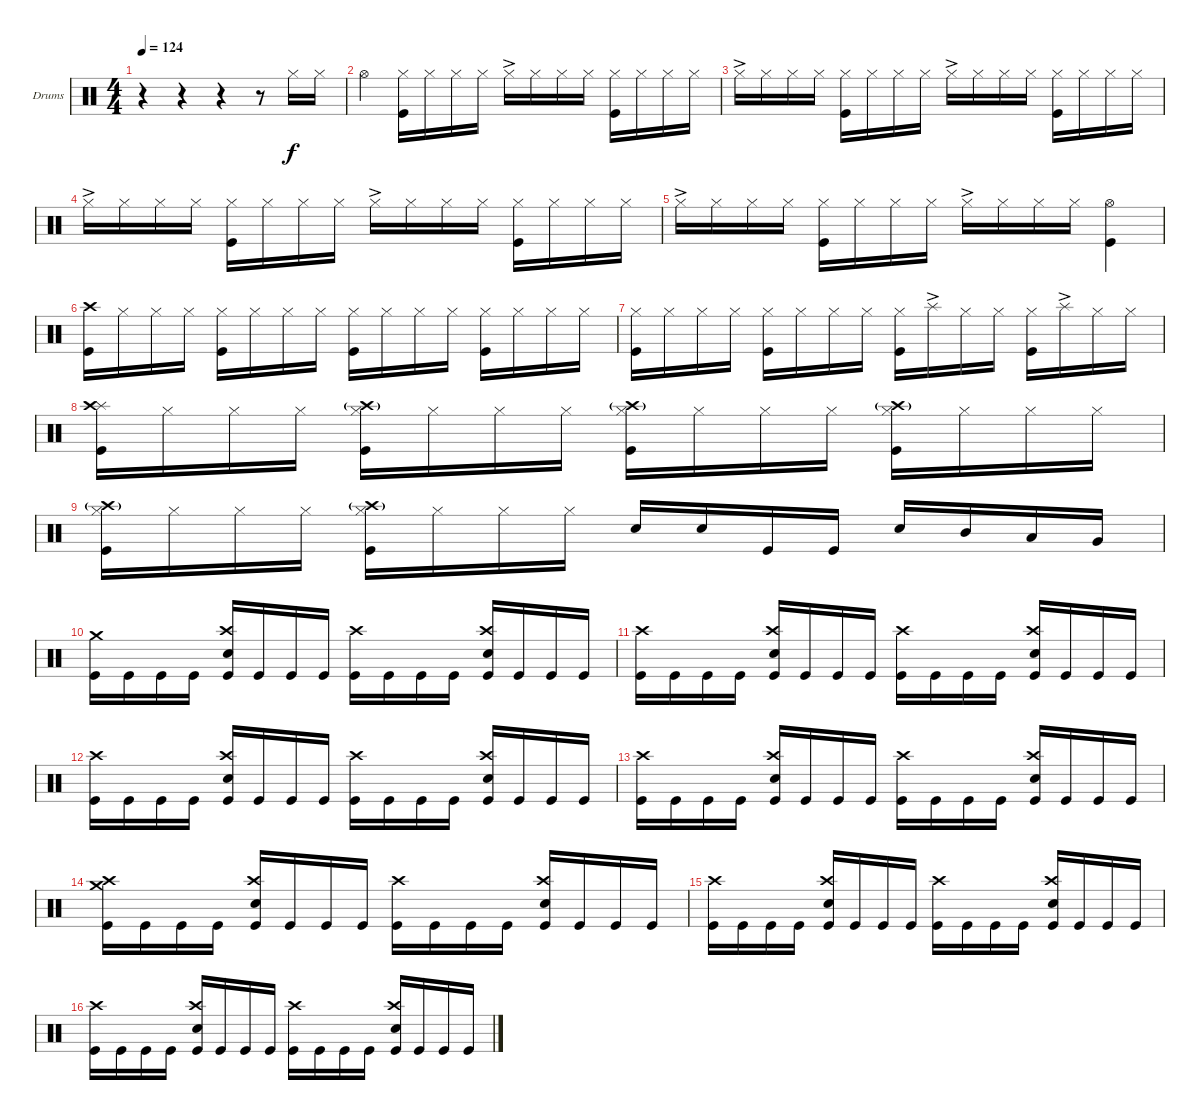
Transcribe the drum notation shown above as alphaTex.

\defaultSystemsLayout 4
\bracketExtendMode groupsimilarinstruments
\firstSystemTrackNameOrientation horizontal
\otherSystemsTrackNameOrientation horizontal
\track ("Drumkit" "Drums") {instrument percussion}
\staff {score}
\articulation defaults
\ts (4 4)
\tempo 124
\clef neutral
\ks c
r.4{dy f} r.4 r.4 r.8 "Hi-Hat (closed)".16 "Hi-Hat (closed)".16 |
"Hi-Hat (open)".4 ("Hi-Hat (closed)" "Kick (hit)").16 "Hi-Hat (closed)".16 "Hi-Hat (closed)".16 "Hi-Hat (closed)".16 "Hi-Hat (closed)"{ac}.16 "Hi-Hat (closed)".16 "Hi-Hat (closed)".16 "Hi-Hat (closed)".16 ("Hi-Hat (closed)" "Kick (hit)").16 "Hi-Hat (closed)".16 "Hi-Hat (closed)".16 "Hi-Hat (closed)".16 |
"Hi-Hat (closed)"{ac}.16 "Hi-Hat (closed)".16 "Hi-Hat (closed)".16 "Hi-Hat (closed)".16 ("Hi-Hat (closed)" "Kick (hit)").16 "Hi-Hat (closed)".16 "Hi-Hat (closed)".16 "Hi-Hat (closed)".16 "Hi-Hat (closed)"{ac}.16 "Hi-Hat (closed)".16 "Hi-Hat (closed)".16 "Hi-Hat (closed)".16 ("Hi-Hat (closed)" "Kick (hit)").16 "Hi-Hat (closed)".16 "Hi-Hat (closed)".16 "Hi-Hat (closed)".16 |
"Hi-Hat (closed)"{ac}.16 "Hi-Hat (closed)".16 "Hi-Hat (closed)".16 "Hi-Hat (closed)".16 ("Hi-Hat (closed)" "Kick (hit)").16 "Hi-Hat (closed)".16 "Hi-Hat (closed)".16 "Hi-Hat (closed)".16 "Hi-Hat (closed)"{ac}.16 "Hi-Hat (closed)".16 "Hi-Hat (closed)".16 "Hi-Hat (closed)".16 ("Hi-Hat (closed)" "Kick (hit)").16 "Hi-Hat (closed)".16 "Hi-Hat (closed)".16 "Hi-Hat (closed)".16 |
"Hi-Hat (closed)"{ac}.16 "Hi-Hat (closed)".16 "Hi-Hat (closed)".16 "Hi-Hat (closed)".16 ("Hi-Hat (closed)" "Kick (hit)").16 "Hi-Hat (closed)".16 "Hi-Hat (closed)".16 "Hi-Hat (closed)".16 "Hi-Hat (closed)"{ac}.16 "Hi-Hat (closed)".16 "Hi-Hat (closed)".16 "Hi-Hat (closed)".16 ("Hi-Hat (open)" "Kick (hit)").4 |
("Crash high (hit)" "Kick (hit)").16 "Hi-Hat (closed)".16 "Hi-Hat (closed)".16 "Hi-Hat (closed)".16 ("Hi-Hat (closed)" "Kick (hit)").16 "Hi-Hat (closed)".16 "Hi-Hat (closed)".16 "Hi-Hat (closed)".16 ("Hi-Hat (closed)" "Kick (hit)").16 "Hi-Hat (closed)".16 "Hi-Hat (closed)".16 "Hi-Hat (closed)".16 ("Hi-Hat (closed)" "Kick (hit)").16 "Hi-Hat (closed)".16 "Hi-Hat (closed)".16 "Hi-Hat (closed)".16 |
("Hi-Hat (closed)" "Kick (hit)").16 "Hi-Hat (closed)".16 "Hi-Hat (closed)".16 "Hi-Hat (closed)".16 ("Hi-Hat (closed)" "Kick (hit)").16 "Hi-Hat (closed)".16 "Hi-Hat (closed)".16 "Hi-Hat (closed)".16 ("Hi-Hat (closed)" "Kick (hit)").16 "Splash (hit)"{ac}.16 "Hi-Hat (closed)".16 "Hi-Hat (closed)".16 ("Hi-Hat (closed)" "Kick (hit)").16 "Splash (hit)"{ac}.16 "Hi-Hat (closed)".16 "Hi-Hat (closed)".16 |
("Splash (hit)" "Crash high (hit)" "Kick (hit)").16 "Hi-Hat (closed)".16 "Hi-Hat (closed)".16 "Hi-Hat (closed)".16 ("Hi-Hat (closed)" "Crash high (hit)"{g} "Kick (hit)").16 "Hi-Hat (closed)".16 "Hi-Hat (closed)".16 "Hi-Hat (closed)".16 ("Hi-Hat (closed)" "Crash high (hit)"{g} "Kick (hit)").16 "Hi-Hat (closed)".16 "Hi-Hat (closed)".16 "Hi-Hat (closed)".16 ("Hi-Hat (closed)" "Crash high (hit)"{g} "Kick (hit)").16 "Hi-Hat (closed)".16 "Hi-Hat (closed)".16 "Hi-Hat (closed)".16 |
("Hi-Hat (closed)" "Crash high (hit)"{g} "Kick (hit)").16 "Hi-Hat (closed)".16 "Hi-Hat (closed)".16 "Hi-Hat (closed)".16 ("Hi-Hat (closed)" "Crash high (hit)"{g} "Kick (hit)").16 "Hi-Hat (closed)".16 "Hi-Hat (closed)".16 "Hi-Hat (closed)".16 "Snare (hit) 2".16 "Snare (hit) 2".16 "Kick (hit)".16 "Kick (hit)".16 "Snare (hit) 2".16 "Mid Tom (hit)".16 "Low Tom (hit)".16 "Very Low Tom (hit)".16 |
("Crash medium (hit)" "Kick (hit)").16 "Kick (hit)".16 "Kick (hit)".16 "Kick (hit)".16 ("Crash high (hit)" "Snare (hit) 2" "Kick (hit)").16 "Kick (hit)".16 "Kick (hit)".16 "Kick (hit)".16 ("Crash high (hit)" "Kick (hit)").16 "Kick (hit)".16 "Kick (hit)".16 "Kick (hit)".16 ("Crash high (hit)" "Snare (hit) 2" "Kick (hit)").16 "Kick (hit)".16 "Kick (hit)".16 "Kick (hit)".16 |
("Crash high (hit)" "Kick (hit)").16 "Kick (hit)".16 "Kick (hit)".16 "Kick (hit)".16 ("Crash high (hit)" "Snare (hit) 2" "Kick (hit)").16 "Kick (hit)".16 "Kick (hit)".16 "Kick (hit)".16 ("Crash high (hit)" "Kick (hit)").16 "Kick (hit)".16 "Kick (hit)".16 "Kick (hit)".16 ("Crash high (hit)" "Snare (hit) 2" "Kick (hit)").16 "Kick (hit)".16 "Kick (hit)".16 "Kick (hit)".16 |
("Crash high (hit)" "Kick (hit)").16 "Kick (hit)".16 "Kick (hit)".16 "Kick (hit)".16 ("Crash high (hit)" "Snare (hit) 2" "Kick (hit)").16 "Kick (hit)".16 "Kick (hit)".16 "Kick (hit)".16 ("Crash high (hit)" "Kick (hit)").16 "Kick (hit)".16 "Kick (hit)".16 "Kick (hit)".16 ("Crash high (hit)" "Snare (hit) 2" "Kick (hit)").16 "Kick (hit)".16 "Kick (hit)".16 "Kick (hit)".16 |
("Crash high (hit)" "Kick (hit)").16 "Kick (hit)".16 "Kick (hit)".16 "Kick (hit)".16 ("Crash high (hit)" "Snare (hit) 2" "Kick (hit)").16 "Kick (hit)".16 "Kick (hit)".16 "Kick (hit)".16 ("Crash high (hit)" "Kick (hit)").16 "Kick (hit)".16 "Kick (hit)".16 "Kick (hit)".16 ("Crash high (hit)" "Snare (hit) 2" "Kick (hit)").16 "Kick (hit)".16 "Kick (hit)".16 "Kick (hit)".16 |
("Crash medium (hit)" "Crash high (hit)" "Kick (hit)").16 "Kick (hit)".16 "Kick (hit)".16 "Kick (hit)".16 ("Crash high (hit)" "Snare (hit) 2" "Kick (hit)").16 "Kick (hit)".16 "Kick (hit)".16 "Kick (hit)".16 ("Crash high (hit)" "Kick (hit)").16 "Kick (hit)".16 "Kick (hit)".16 "Kick (hit)".16 ("Crash high (hit)" "Snare (hit) 2" "Kick (hit)").16 "Kick (hit)".16 "Kick (hit)".16 "Kick (hit)".16 |
("Crash high (hit)" "Kick (hit)").16 "Kick (hit)".16 "Kick (hit)".16 "Kick (hit)".16 ("Crash high (hit)" "Snare (hit) 2" "Kick (hit)").16 "Kick (hit)".16 "Kick (hit)".16 "Kick (hit)".16 ("Crash high (hit)" "Kick (hit)").16 "Kick (hit)".16 "Kick (hit)".16 "Kick (hit)".16 ("Crash high (hit)" "Snare (hit) 2" "Kick (hit)").16 "Kick (hit)".16 "Kick (hit)".16 "Kick (hit)".16 |
("Crash high (hit)" "Kick (hit)").16 "Kick (hit)".16 "Kick (hit)".16 "Kick (hit)".16 ("Crash high (hit)" "Snare (hit) 2" "Kick (hit)").16 "Kick (hit)".16 "Kick (hit)".16 "Kick (hit)".16 ("Crash high (hit)" "Kick (hit)").16 "Kick (hit)".16 "Kick (hit)".16 "Kick (hit)".16 ("Crash high (hit)" "Snare (hit) 2" "Kick (hit)").16 "Kick (hit)".16 "Kick (hit)".16 "Kick (hit)".16
